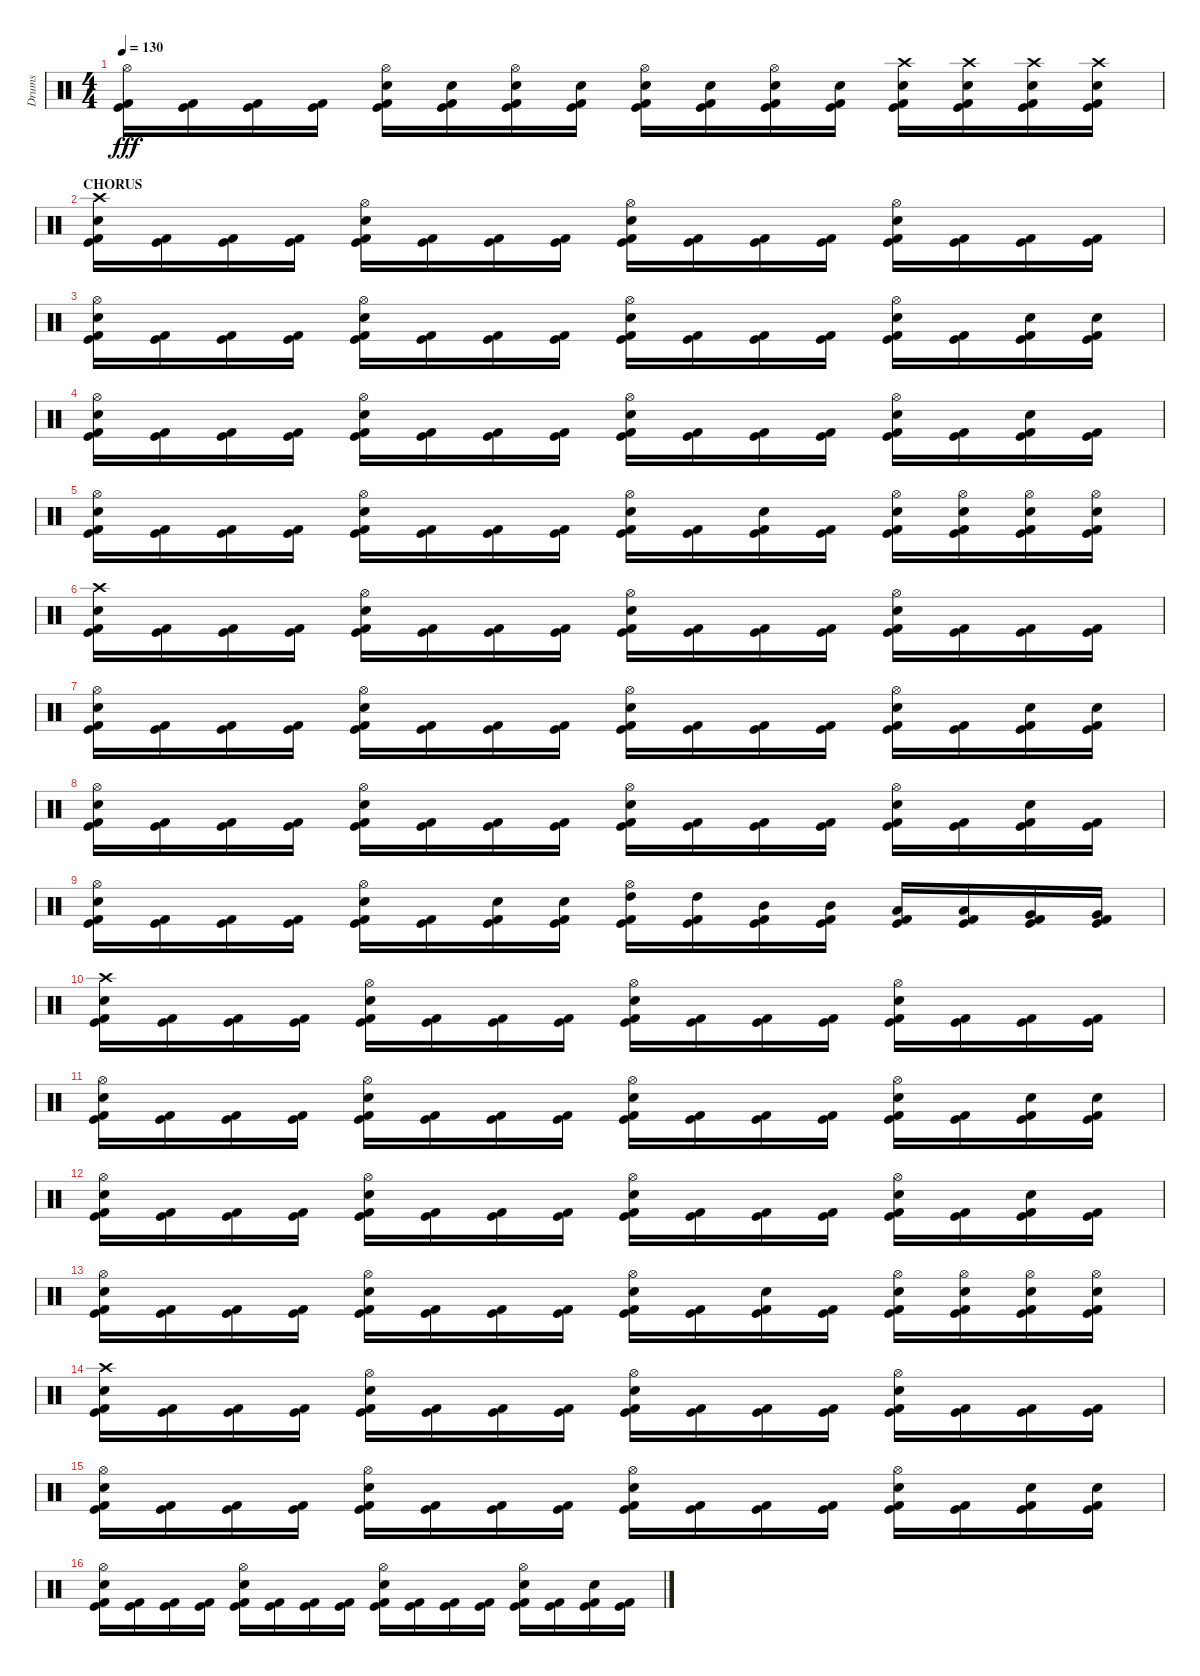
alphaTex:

\track ("Drums" "Drums") {instrument percussion}
\staff {score}
\articulation defaults
\ts (4 4)
\tempo 130
\clef neutral
\ks c
("Hi-Hat (open)" "Kick (hit)" "Kick (hit) 2").16{dy fff} ("Kick (hit)" "Kick (hit) 2").16 ("Kick (hit)" "Kick (hit) 2").16 ("Kick (hit)" "Kick (hit) 2").16 ("Hi-Hat (open)" "Electric Snare (hit)" "Kick (hit)" "Kick (hit) 2").16 ("Electric Snare (hit)" "Kick (hit)" "Kick (hit) 2").16 ("Hi-Hat (open)" "Electric Snare (hit)" "Kick (hit)" "Kick (hit) 2").16 ("Electric Snare (hit)" "Kick (hit)" "Kick (hit) 2").16 ("Hi-Hat (open)" "Electric Snare (hit)" "Kick (hit)" "Kick (hit) 2").16 ("Electric Snare (hit)" "Kick (hit)" "Kick (hit) 2").16 ("Hi-Hat (open)" "Electric Snare (hit)" "Kick (hit)" "Kick (hit) 2").16 ("Electric Snare (hit)" "Kick (hit)" "Kick (hit) 2").16 ("Crash high (hit)" "Electric Snare (hit)" "Kick (hit)" "Kick (hit) 2").16 ("Crash high (hit)" "Electric Snare (hit)" "Kick (hit)" "Kick (hit) 2").16 ("Crash high (hit)" "Electric Snare (hit)" "Kick (hit)" "Kick (hit) 2").16 ("Crash high (hit)" "Electric Snare (hit)" "Kick (hit)" "Kick (hit) 2").16 |
\section ("" "CHORUS")
("Crash high (hit)" "Electric Snare (hit)" "Kick (hit)" "Kick (hit) 2").16 ("Kick (hit)" "Kick (hit) 2").16 ("Kick (hit)" "Kick (hit) 2").16 ("Kick (hit)" "Kick (hit) 2").16 ("Hi-Hat (open)" "Electric Snare (hit)" "Kick (hit)" "Kick (hit) 2").16 ("Kick (hit)" "Kick (hit) 2").16 ("Kick (hit)" "Kick (hit) 2").16 ("Kick (hit)" "Kick (hit) 2").16 ("Hi-Hat (open)" "Electric Snare (hit)" "Kick (hit)" "Kick (hit) 2").16 ("Kick (hit)" "Kick (hit) 2").16 ("Kick (hit)" "Kick (hit) 2").16 ("Kick (hit)" "Kick (hit) 2").16 ("Hi-Hat (open)" "Electric Snare (hit)" "Kick (hit)" "Kick (hit) 2").16 ("Kick (hit)" "Kick (hit) 2").16 ("Kick (hit)" "Kick (hit) 2").16 ("Kick (hit)" "Kick (hit) 2").16 |
("Hi-Hat (open)" "Electric Snare (hit)" "Kick (hit)" "Kick (hit) 2").16 ("Kick (hit)" "Kick (hit) 2").16 ("Kick (hit)" "Kick (hit) 2").16 ("Kick (hit)" "Kick (hit) 2").16 ("Hi-Hat (open)" "Electric Snare (hit)" "Kick (hit)" "Kick (hit) 2").16 ("Kick (hit)" "Kick (hit) 2").16 ("Kick (hit)" "Kick (hit) 2").16 ("Kick (hit)" "Kick (hit) 2").16 ("Hi-Hat (open)" "Electric Snare (hit)" "Kick (hit)" "Kick (hit) 2").16 ("Kick (hit)" "Kick (hit) 2").16 ("Kick (hit)" "Kick (hit) 2").16 ("Kick (hit)" "Kick (hit) 2").16 ("Hi-Hat (open)" "Electric Snare (hit)" "Kick (hit)" "Kick (hit) 2").16 ("Kick (hit)" "Kick (hit) 2").16 ("Electric Snare (hit)" "Kick (hit)" "Kick (hit) 2").16 ("Electric Snare (hit)" "Kick (hit)" "Kick (hit) 2").16 |
("Hi-Hat (open)" "Electric Snare (hit)" "Kick (hit)" "Kick (hit) 2").16 ("Kick (hit)" "Kick (hit) 2").16 ("Kick (hit)" "Kick (hit) 2").16 ("Kick (hit)" "Kick (hit) 2").16 ("Hi-Hat (open)" "Electric Snare (hit)" "Kick (hit)" "Kick (hit) 2").16 ("Kick (hit)" "Kick (hit) 2").16 ("Kick (hit)" "Kick (hit) 2").16 ("Kick (hit)" "Kick (hit) 2").16 ("Hi-Hat (open)" "Electric Snare (hit)" "Kick (hit)" "Kick (hit) 2").16 ("Kick (hit)" "Kick (hit) 2").16 ("Kick (hit)" "Kick (hit) 2").16 ("Kick (hit)" "Kick (hit) 2").16 ("Hi-Hat (open)" "Electric Snare (hit)" "Kick (hit)" "Kick (hit) 2").16 ("Kick (hit)" "Kick (hit) 2").16 ("Electric Snare (hit)" "Kick (hit)" "Kick (hit) 2").16 ("Kick (hit)" "Kick (hit) 2").16 |
("Hi-Hat (open)" "Electric Snare (hit)" "Kick (hit)" "Kick (hit) 2").16 ("Kick (hit)" "Kick (hit) 2").16 ("Kick (hit)" "Kick (hit) 2").16 ("Kick (hit)" "Kick (hit) 2").16 ("Hi-Hat (open)" "Electric Snare (hit)" "Kick (hit)" "Kick (hit) 2").16 ("Kick (hit)" "Kick (hit) 2").16 ("Kick (hit)" "Kick (hit) 2").16 ("Kick (hit)" "Kick (hit) 2").16 ("Hi-Hat (open)" "Electric Snare (hit)" "Kick (hit)" "Kick (hit) 2").16 ("Kick (hit)" "Kick (hit) 2").16 ("Electric Snare (hit)" "Kick (hit)" "Kick (hit) 2").16 ("Kick (hit)" "Kick (hit) 2").16 ("Hi-Hat (open)" "Electric Snare (hit)" "Kick (hit)" "Kick (hit) 2").16 ("Hi-Hat (open)" "Electric Snare (hit)" "Kick (hit)" "Kick (hit) 2").16 ("Hi-Hat (open)" "Electric Snare (hit)" "Kick (hit)" "Kick (hit) 2").16 ("Hi-Hat (open)" "Electric Snare (hit)" "Kick (hit)" "Kick (hit) 2").16 |
("Crash high (hit)" "Electric Snare (hit)" "Kick (hit)" "Kick (hit) 2").16 ("Kick (hit)" "Kick (hit) 2").16 ("Kick (hit)" "Kick (hit) 2").16 ("Kick (hit)" "Kick (hit) 2").16 ("Hi-Hat (open)" "Electric Snare (hit)" "Kick (hit)" "Kick (hit) 2").16 ("Kick (hit)" "Kick (hit) 2").16 ("Kick (hit)" "Kick (hit) 2").16 ("Kick (hit)" "Kick (hit) 2").16 ("Hi-Hat (open)" "Electric Snare (hit)" "Kick (hit)" "Kick (hit) 2").16 ("Kick (hit)" "Kick (hit) 2").16 ("Kick (hit)" "Kick (hit) 2").16 ("Kick (hit)" "Kick (hit) 2").16 ("Hi-Hat (open)" "Electric Snare (hit)" "Kick (hit)" "Kick (hit) 2").16 ("Kick (hit)" "Kick (hit) 2").16 ("Kick (hit)" "Kick (hit) 2").16 ("Kick (hit)" "Kick (hit) 2").16 |
("Hi-Hat (open)" "Electric Snare (hit)" "Kick (hit)" "Kick (hit) 2").16 ("Kick (hit)" "Kick (hit) 2").16 ("Kick (hit)" "Kick (hit) 2").16 ("Kick (hit)" "Kick (hit) 2").16 ("Hi-Hat (open)" "Electric Snare (hit)" "Kick (hit)" "Kick (hit) 2").16 ("Kick (hit)" "Kick (hit) 2").16 ("Kick (hit)" "Kick (hit) 2").16 ("Kick (hit)" "Kick (hit) 2").16 ("Hi-Hat (open)" "Electric Snare (hit)" "Kick (hit)" "Kick (hit) 2").16 ("Kick (hit)" "Kick (hit) 2").16 ("Kick (hit)" "Kick (hit) 2").16 ("Kick (hit)" "Kick (hit) 2").16 ("Hi-Hat (open)" "Electric Snare (hit)" "Kick (hit)" "Kick (hit) 2").16 ("Kick (hit)" "Kick (hit) 2").16 ("Electric Snare (hit)" "Kick (hit)" "Kick (hit) 2").16 ("Electric Snare (hit)" "Kick (hit)" "Kick (hit) 2").16 |
("Hi-Hat (open)" "Electric Snare (hit)" "Kick (hit)" "Kick (hit) 2").16 ("Kick (hit)" "Kick (hit) 2").16 ("Kick (hit)" "Kick (hit) 2").16 ("Kick (hit)" "Kick (hit) 2").16 ("Hi-Hat (open)" "Electric Snare (hit)" "Kick (hit)" "Kick (hit) 2").16 ("Kick (hit)" "Kick (hit) 2").16 ("Kick (hit)" "Kick (hit) 2").16 ("Kick (hit)" "Kick (hit) 2").16 ("Hi-Hat (open)" "Electric Snare (hit)" "Kick (hit)" "Kick (hit) 2").16 ("Kick (hit)" "Kick (hit) 2").16 ("Kick (hit)" "Kick (hit) 2").16 ("Kick (hit)" "Kick (hit) 2").16 ("Hi-Hat (open)" "Electric Snare (hit)" "Kick (hit)" "Kick (hit) 2").16 ("Kick (hit)" "Kick (hit) 2").16 ("Electric Snare (hit)" "Kick (hit)" "Kick (hit) 2").16 ("Kick (hit)" "Kick (hit) 2").16 |
("Hi-Hat (open)" "Electric Snare (hit)" "Kick (hit)" "Kick (hit) 2").16 ("Kick (hit)" "Kick (hit) 2").16 ("Kick (hit)" "Kick (hit) 2").16 ("Kick (hit)" "Kick (hit) 2").16 ("Hi-Hat (open)" "Electric Snare (hit)" "Kick (hit)" "Kick (hit) 2").16 ("Kick (hit)" "Kick (hit) 2").16 ("Electric Snare (hit)" "Kick (hit)" "Kick (hit) 2").16 ("Electric Snare (hit)" "Kick (hit)" "Kick (hit) 2").16 ("Hi-Hat (open)" "High Tom (hit)" "Kick (hit)" "Kick (hit) 2").16 ("High Tom (hit)" "Kick (hit)" "Kick (hit) 2").16 ("Mid Tom (hit)" "Kick (hit)" "Kick (hit) 2").16 ("Mid Tom (hit)" "Kick (hit)" "Kick (hit) 2").16 ("Low Tom (hit)" "Kick (hit)" "Kick (hit) 2").16 ("Low Tom (hit)" "Kick (hit)" "Kick (hit) 2").16 ("Very Low Tom (hit)" "Kick (hit)" "Kick (hit) 2").16 ("Very Low Tom (hit)" "Kick (hit)" "Kick (hit) 2").16 |
("Crash high (hit)" "Electric Snare (hit)" "Kick (hit)" "Kick (hit) 2").16 ("Kick (hit)" "Kick (hit) 2").16 ("Kick (hit)" "Kick (hit) 2").16 ("Kick (hit)" "Kick (hit) 2").16 ("Hi-Hat (open)" "Electric Snare (hit)" "Kick (hit)" "Kick (hit) 2").16 ("Kick (hit)" "Kick (hit) 2").16 ("Kick (hit)" "Kick (hit) 2").16 ("Kick (hit)" "Kick (hit) 2").16 ("Hi-Hat (open)" "Electric Snare (hit)" "Kick (hit)" "Kick (hit) 2").16 ("Kick (hit)" "Kick (hit) 2").16 ("Kick (hit)" "Kick (hit) 2").16 ("Kick (hit)" "Kick (hit) 2").16 ("Hi-Hat (open)" "Electric Snare (hit)" "Kick (hit)" "Kick (hit) 2").16 ("Kick (hit)" "Kick (hit) 2").16 ("Kick (hit)" "Kick (hit) 2").16 ("Kick (hit)" "Kick (hit) 2").16 |
("Hi-Hat (open)" "Electric Snare (hit)" "Kick (hit)" "Kick (hit) 2").16 ("Kick (hit)" "Kick (hit) 2").16 ("Kick (hit)" "Kick (hit) 2").16 ("Kick (hit)" "Kick (hit) 2").16 ("Hi-Hat (open)" "Electric Snare (hit)" "Kick (hit)" "Kick (hit) 2").16 ("Kick (hit)" "Kick (hit) 2").16 ("Kick (hit)" "Kick (hit) 2").16 ("Kick (hit)" "Kick (hit) 2").16 ("Hi-Hat (open)" "Electric Snare (hit)" "Kick (hit)" "Kick (hit) 2").16 ("Kick (hit)" "Kick (hit) 2").16 ("Kick (hit)" "Kick (hit) 2").16 ("Kick (hit)" "Kick (hit) 2").16 ("Hi-Hat (open)" "Electric Snare (hit)" "Kick (hit)" "Kick (hit) 2").16 ("Kick (hit)" "Kick (hit) 2").16 ("Electric Snare (hit)" "Kick (hit)" "Kick (hit) 2").16 ("Electric Snare (hit)" "Kick (hit)" "Kick (hit) 2").16 |
("Hi-Hat (open)" "Electric Snare (hit)" "Kick (hit)" "Kick (hit) 2").16 ("Kick (hit)" "Kick (hit) 2").16 ("Kick (hit)" "Kick (hit) 2").16 ("Kick (hit)" "Kick (hit) 2").16 ("Hi-Hat (open)" "Electric Snare (hit)" "Kick (hit)" "Kick (hit) 2").16 ("Kick (hit)" "Kick (hit) 2").16 ("Kick (hit)" "Kick (hit) 2").16 ("Kick (hit)" "Kick (hit) 2").16 ("Hi-Hat (open)" "Electric Snare (hit)" "Kick (hit)" "Kick (hit) 2").16 ("Kick (hit)" "Kick (hit) 2").16 ("Kick (hit)" "Kick (hit) 2").16 ("Kick (hit)" "Kick (hit) 2").16 ("Hi-Hat (open)" "Electric Snare (hit)" "Kick (hit)" "Kick (hit) 2").16 ("Kick (hit)" "Kick (hit) 2").16 ("Electric Snare (hit)" "Kick (hit)" "Kick (hit) 2").16 ("Kick (hit)" "Kick (hit) 2").16 |
("Hi-Hat (open)" "Electric Snare (hit)" "Kick (hit)" "Kick (hit) 2").16 ("Kick (hit)" "Kick (hit) 2").16 ("Kick (hit)" "Kick (hit) 2").16 ("Kick (hit)" "Kick (hit) 2").16 ("Hi-Hat (open)" "Electric Snare (hit)" "Kick (hit)" "Kick (hit) 2").16 ("Kick (hit)" "Kick (hit) 2").16 ("Kick (hit)" "Kick (hit) 2").16 ("Kick (hit)" "Kick (hit) 2").16 ("Hi-Hat (open)" "Electric Snare (hit)" "Kick (hit)" "Kick (hit) 2").16 ("Kick (hit)" "Kick (hit) 2").16 ("Electric Snare (hit)" "Kick (hit)" "Kick (hit) 2").16 ("Kick (hit)" "Kick (hit) 2").16 ("Hi-Hat (open)" "Electric Snare (hit)" "Kick (hit)" "Kick (hit) 2").16 ("Hi-Hat (open)" "Electric Snare (hit)" "Kick (hit)" "Kick (hit) 2").16 ("Hi-Hat (open)" "Electric Snare (hit)" "Kick (hit)" "Kick (hit) 2").16 ("Hi-Hat (open)" "Electric Snare (hit)" "Kick (hit)" "Kick (hit) 2").16 |
("Crash high (hit)" "Electric Snare (hit)" "Kick (hit)" "Kick (hit) 2").16 ("Kick (hit)" "Kick (hit) 2").16 ("Kick (hit)" "Kick (hit) 2").16 ("Kick (hit)" "Kick (hit) 2").16 ("Hi-Hat (open)" "Electric Snare (hit)" "Kick (hit)" "Kick (hit) 2").16 ("Kick (hit)" "Kick (hit) 2").16 ("Kick (hit)" "Kick (hit) 2").16 ("Kick (hit)" "Kick (hit) 2").16 ("Hi-Hat (open)" "Electric Snare (hit)" "Kick (hit)" "Kick (hit) 2").16 ("Kick (hit)" "Kick (hit) 2").16 ("Kick (hit)" "Kick (hit) 2").16 ("Kick (hit)" "Kick (hit) 2").16 ("Hi-Hat (open)" "Electric Snare (hit)" "Kick (hit)" "Kick (hit) 2").16 ("Kick (hit)" "Kick (hit) 2").16 ("Kick (hit)" "Kick (hit) 2").16 ("Kick (hit)" "Kick (hit) 2").16 |
("Hi-Hat (open)" "Electric Snare (hit)" "Kick (hit)" "Kick (hit) 2").16 ("Kick (hit)" "Kick (hit) 2").16 ("Kick (hit)" "Kick (hit) 2").16 ("Kick (hit)" "Kick (hit) 2").16 ("Hi-Hat (open)" "Electric Snare (hit)" "Kick (hit)" "Kick (hit) 2").16 ("Kick (hit)" "Kick (hit) 2").16 ("Kick (hit)" "Kick (hit) 2").16 ("Kick (hit)" "Kick (hit) 2").16 ("Hi-Hat (open)" "Electric Snare (hit)" "Kick (hit)" "Kick (hit) 2").16 ("Kick (hit)" "Kick (hit) 2").16 ("Kick (hit)" "Kick (hit) 2").16 ("Kick (hit)" "Kick (hit) 2").16 ("Hi-Hat (open)" "Electric Snare (hit)" "Kick (hit)" "Kick (hit) 2").16 ("Kick (hit)" "Kick (hit) 2").16 ("Electric Snare (hit)" "Kick (hit)" "Kick (hit) 2").16 ("Electric Snare (hit)" "Kick (hit)" "Kick (hit) 2").16 |
("Hi-Hat (open)" "Electric Snare (hit)" "Kick (hit)" "Kick (hit) 2").16 ("Kick (hit)" "Kick (hit) 2").16 ("Kick (hit)" "Kick (hit) 2").16 ("Kick (hit)" "Kick (hit) 2").16 ("Hi-Hat (open)" "Electric Snare (hit)" "Kick (hit)" "Kick (hit) 2").16 ("Kick (hit)" "Kick (hit) 2").16 ("Kick (hit)" "Kick (hit) 2").16 ("Kick (hit)" "Kick (hit) 2").16 ("Hi-Hat (open)" "Electric Snare (hit)" "Kick (hit)" "Kick (hit) 2").16 ("Kick (hit)" "Kick (hit) 2").16 ("Kick (hit)" "Kick (hit) 2").16 ("Kick (hit)" "Kick (hit) 2").16 ("Hi-Hat (open)" "Electric Snare (hit)" "Kick (hit)" "Kick (hit) 2").16 ("Kick (hit)" "Kick (hit) 2").16 ("Electric Snare (hit)" "Kick (hit)" "Kick (hit) 2").16 ("Kick (hit)" "Kick (hit) 2").16
